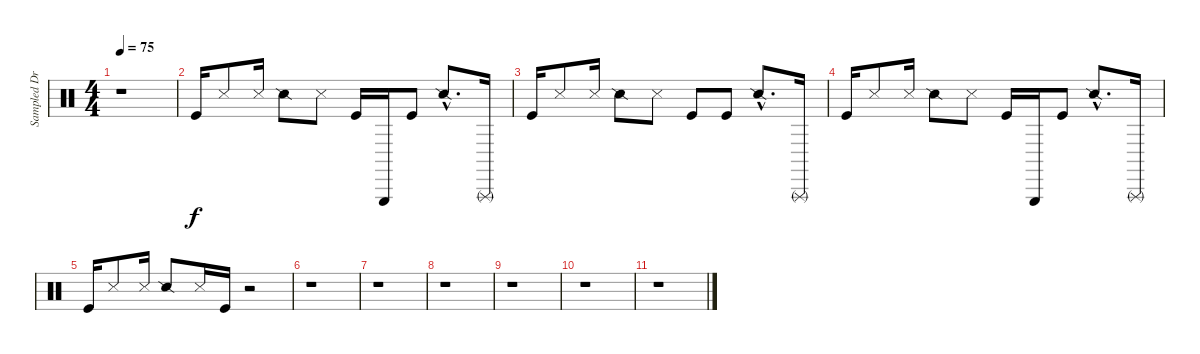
\track ("Sampled Drums" "Sampled Dr") {instrument percussion}
\staff {score}
\articulation defaults
\ts (4 4)
\tempo 75
\clef neutral
\ks c
r.1{dy f} |
"Kick (hit)".16 "Snare (side stick) 3".8 "Snare (side stick) 3".16 "Snare (side stick) 2".8 "Snare (side stick) 3".8 "Kick (hit)".16 "Triangle (hit)".16 "Kick (hit)".8 "Snare (side stick) 2"{hac}.8{d} "Triangle (rnute)".16 |
"Kick (hit)".16 "Snare (side stick) 3".8 "Snare (side stick) 3".16 "Snare (side stick) 2".8 "Snare (side stick) 3".8 "Kick (hit)".8 "Kick (hit)".8 "Snare (side stick) 2"{hac}.8{d} "Triangle (rnute)".16 |
"Kick (hit)".16 "Snare (side stick) 3".8 "Snare (side stick) 3".16 "Snare (side stick) 2".8 "Snare (side stick) 3".8 "Kick (hit)".16 "Triangle (hit)".16 "Kick (hit)".8 "Snare (side stick) 2"{hac}.8{d} "Triangle (rnute)".16 |
"Kick (hit)".16 "Snare (side stick) 3".8 "Snare (side stick) 3".16 "Snare (side stick) 2".8 "Snare (side stick) 3".16 "Kick (hit)".16 r.2 |
r.1 |
r.1 |
r.1 |
r.1 |
r.1 |
r.1
